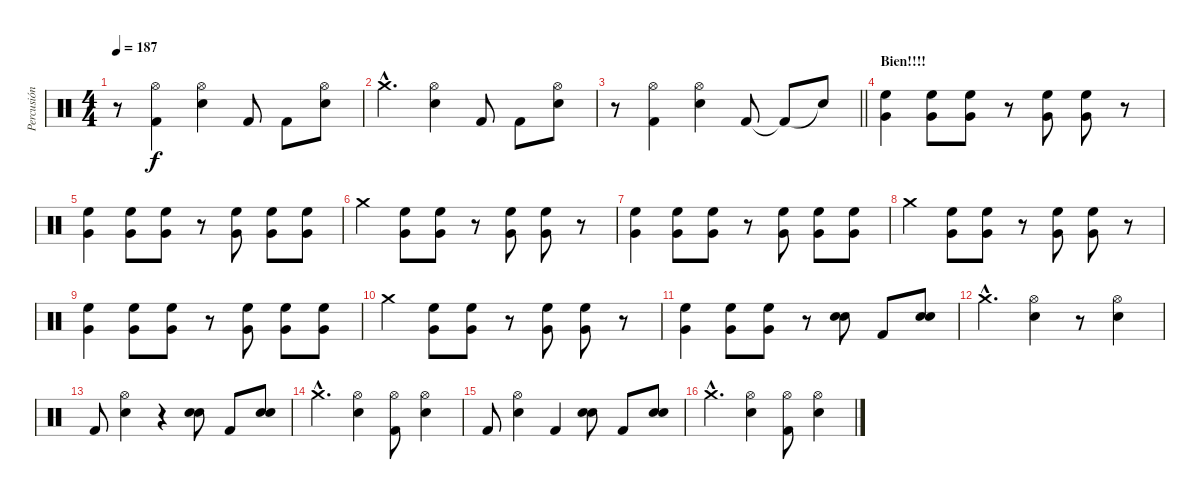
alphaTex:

\track ("Percusión" "Percusión") {instrument percussion}
\staff {score}
\articulation defaults
\ts (4 4)
\tempo 187
\clef neutral
\ks c
r.8{dy f} ("Hi-Hat (open)" "Kick (hit) 2").4 ("Hi-Hat (open)" "Snare (hit) 2").4 "Kick (hit) 2".8 "Kick (hit) 2".8 ("Hi-Hat (open)" "Snare (hit) 2").8 |
"Crash medium (hit)"{hac}.4{d} ("Hi-Hat (open)" "Snare (hit) 2").4 "Kick (hit) 2".8 "Kick (hit) 2".8 ("Hi-Hat (open)" "Snare (hit) 2").8 |
\barLineRight lightlight
r.8 ("Hi-Hat (open)" "Kick (hit) 2").4 ("Hi-Hat (open)" "Snare (hit) 2").4 "Kick (hit) 2".8 "Kick (hit) 2"{t}.8 "Snare (hit) 2"{t}.8 |
\section ("" "Bien!!!!")
("Very Low Tom (hit)" "High Floor Tom (hit)").4 ("Very Low Tom (hit)" "High Floor Tom (hit)").8 ("Very Low Tom (hit)" "High Floor Tom (hit)").8 r.8 ("Very Low Tom (hit)" "High Floor Tom (hit)").8 ("Very Low Tom (hit)" "High Floor Tom (hit)").8 r.8 |
("Very Low Tom (hit)" "High Floor Tom (hit)").4 ("Very Low Tom (hit)" "High Floor Tom (hit)").8 ("Very Low Tom (hit)" "High Floor Tom (hit)").8 r.8 ("Very Low Tom (hit)" "High Floor Tom (hit)").8 ("Very Low Tom (hit)" "High Floor Tom (hit)").8 ("Very Low Tom (hit)" "High Floor Tom (hit)").8 |
"Crash medium (hit)".4 ("Very Low Tom (hit)" "High Floor Tom (hit)").8 ("Very Low Tom (hit)" "High Floor Tom (hit)").8 r.8 ("Very Low Tom (hit)" "High Floor Tom (hit)").8 ("Very Low Tom (hit)" "High Floor Tom (hit)").8 r.8 |
("Very Low Tom (hit)" "High Floor Tom (hit)").4 ("Very Low Tom (hit)" "High Floor Tom (hit)").8 ("Very Low Tom (hit)" "High Floor Tom (hit)").8 r.8 ("Very Low Tom (hit)" "High Floor Tom (hit)").8 ("Very Low Tom (hit)" "High Floor Tom (hit)").8 ("Very Low Tom (hit)" "High Floor Tom (hit)").8 |
"Crash medium (hit)".4 ("Very Low Tom (hit)" "High Floor Tom (hit)").8 ("Very Low Tom (hit)" "High Floor Tom (hit)").8 r.8 ("Very Low Tom (hit)" "High Floor Tom (hit)").8 ("Very Low Tom (hit)" "High Floor Tom (hit)").8 r.8 |
("Very Low Tom (hit)" "High Floor Tom (hit)").4 ("Very Low Tom (hit)" "High Floor Tom (hit)").8 ("Very Low Tom (hit)" "High Floor Tom (hit)").8 r.8 ("Very Low Tom (hit)" "High Floor Tom (hit)").8 ("Very Low Tom (hit)" "High Floor Tom (hit)").8 ("Very Low Tom (hit)" "High Floor Tom (hit)").8 |
"Crash medium (hit)".4 ("Very Low Tom (hit)" "High Floor Tom (hit)").8 ("Very Low Tom (hit)" "High Floor Tom (hit)").8 r.8 ("Very Low Tom (hit)" "High Floor Tom (hit)").8 ("Very Low Tom (hit)" "High Floor Tom (hit)").8 r.8 |
("Very Low Tom (hit)" "High Floor Tom (hit)").4 ("Very Low Tom (hit)" "High Floor Tom (hit)").8 ("Very Low Tom (hit)" "High Floor Tom (hit)").8 r.8 ("Snare (hit) 2" "Snare (hit) 2").8 "Kick (hit) 2".8 ("Snare (hit) 2" "Snare (hit) 2").8 |
"Crash medium (hit)"{hac}.4{d} ("Hi-Hat (open)" "Snare (hit) 2").4 r.8 ("Hi-Hat (open)" "Snare (hit) 2").4 |
"Kick (hit) 2".8 ("Hi-Hat (open)" "Snare (hit) 2").4 r.4 ("Snare (hit) 2" "Snare (hit) 2").8 "Kick (hit) 2".8 ("Snare (hit) 2" "Snare (hit) 2").8 |
"Crash medium (hit)"{hac}.4{d} ("Hi-Hat (open)" "Snare (hit) 2").4 ("Hi-Hat (open)" "Kick (hit) 2").8 ("Hi-Hat (open)" "Snare (hit) 2").4 |
"Kick (hit) 2".8 ("Hi-Hat (open)" "Snare (hit) 2").4 "Kick (hit) 2".4 ("Snare (hit) 2" "Snare (hit) 2").8 "Kick (hit) 2".8 ("Snare (hit) 2" "Snare (hit) 2").8 |
"Crash medium (hit)"{hac}.4{d} ("Hi-Hat (open)" "Snare (hit) 2").4 ("Hi-Hat (open)" "Kick (hit) 2").8 ("Hi-Hat (open)" "Snare (hit) 2").4
